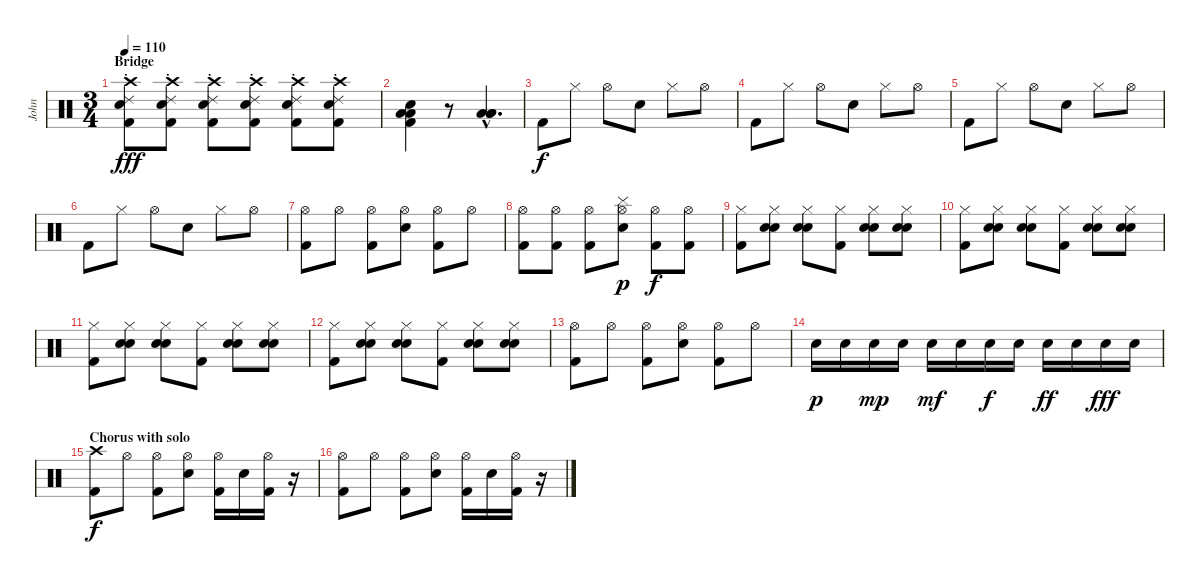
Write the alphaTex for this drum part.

\track ("John" "John") {instrument percussion}
\staff {score}
\articulation defaults
\ts (3 4)
\section ("" "Bridge")
\tempo 110
\clef neutral
\ks c
("Crash high (hit)" "Electric Snare (hit)" "Kick (hit) 2" "Ride (choke) 2").8{dy fff} ("Crash high (hit)" "Electric Snare (hit)" "Kick (hit) 2" "Ride (choke) 2").8 ("Crash high (hit)" "Electric Snare (hit)" "Kick (hit) 2" "Ride (choke) 2").8 ("Crash high (hit)" "Electric Snare (hit)" "Kick (hit) 2" "Ride (choke) 2").8 ("Crash high (hit)" "Electric Snare (hit)" "Kick (hit) 2" "Ride (choke) 2").8 ("Crash high (hit)" "Electric Snare (hit)" "Kick (hit) 2" "Ride (choke) 2").8 |
("Kick (hit) 2" "Low Floor Tom (hit)" "Low Floor Tom (hit)" "Electric Snare (hit)").4 r.8 ("Low Floor Tom (hit)"{hac} "Low Floor Tom (hit)"{hac} "Low Floor Tom (hit)"{hac}).4{d} |
"Kick (hit) 2".8{dy f} "Hi-Hat (closed)".8 "Hi-Hat (open)".8 "Electric Snare (hit)".8 "Hi-Hat (closed)".8 "Hi-Hat (open)".8 |
"Kick (hit) 2".8 "Hi-Hat (closed)".8 "Hi-Hat (open)".8 "Electric Snare (hit)".8 "Hi-Hat (closed)".8 "Hi-Hat (open)".8 |
"Kick (hit) 2".8 "Hi-Hat (closed)".8 "Hi-Hat (open)".8 "Electric Snare (hit)".8 "Hi-Hat (closed)".8 "Hi-Hat (open)".8 |
"Kick (hit) 2".8 "Hi-Hat (closed)".8 "Hi-Hat (open)".8 "Electric Snare (hit)".8 "Hi-Hat (closed)".8 "Hi-Hat (open)".8 |
("Hi-Hat (open)" "Kick (hit) 2").8 "Hi-Hat (open)".8 ("Hi-Hat (open)" "Kick (hit) 2").8 ("Hi-Hat (open)" "Electric Snare (hit)").8 ("Hi-Hat (open)" "Kick (hit) 2").8 "Hi-Hat (open)".8 |
("Hi-Hat (open)" "Kick (hit) 2").8 ("Hi-Hat (open)" "Kick (hit) 2").8 ("Hi-Hat (open)" "Kick (hit) 2").8 ("Hi-Hat (open)" "Cymbal (hit)" "Electric Snare (hit)").8{dy p} ("Hi-Hat (open)" "Kick (hit) 2").8{dy f} ("Hi-Hat (open)" "Kick (hit) 2").8 |
("Hi-Hat (closed)" "Kick (hit) 2").8 ("Hi-Hat (closed)" "Electric Snare (hit)" "Electric Snare (hit)").8 ("Hi-Hat (closed)" "Electric Snare (hit)" "Electric Snare (hit)").8 ("Hi-Hat (closed)" "Kick (hit) 2").8 ("Hi-Hat (closed)" "Electric Snare (hit)" "Electric Snare (hit)").8 ("Hi-Hat (closed)" "Electric Snare (hit)" "Electric Snare (hit)").8 |
("Hi-Hat (closed)" "Kick (hit) 2").8 ("Hi-Hat (closed)" "Electric Snare (hit)" "Electric Snare (hit)").8 ("Hi-Hat (closed)" "Electric Snare (hit)" "Electric Snare (hit)").8 ("Hi-Hat (closed)" "Kick (hit) 2").8 ("Hi-Hat (closed)" "Electric Snare (hit)" "Electric Snare (hit)").8 ("Hi-Hat (closed)" "Electric Snare (hit)" "Electric Snare (hit)").8 |
("Hi-Hat (closed)" "Kick (hit) 2").8 ("Hi-Hat (closed)" "Electric Snare (hit)" "Electric Snare (hit)").8 ("Hi-Hat (closed)" "Electric Snare (hit)" "Electric Snare (hit)").8 ("Hi-Hat (closed)" "Kick (hit) 2").8 ("Hi-Hat (closed)" "Electric Snare (hit)" "Electric Snare (hit)").8 ("Hi-Hat (closed)" "Electric Snare (hit)" "Electric Snare (hit)").8 |
("Hi-Hat (closed)" "Kick (hit) 2").8 ("Hi-Hat (closed)" "Electric Snare (hit)" "Electric Snare (hit)").8 ("Hi-Hat (closed)" "Electric Snare (hit)" "Electric Snare (hit)").8 ("Hi-Hat (closed)" "Kick (hit) 2").8 ("Hi-Hat (closed)" "Electric Snare (hit)" "Electric Snare (hit)").8 ("Hi-Hat (closed)" "Electric Snare (hit)" "Electric Snare (hit)").8 |
("Hi-Hat (open)" "Kick (hit) 2").8 "Hi-Hat (open)".8 ("Hi-Hat (open)" "Kick (hit) 2").8 ("Hi-Hat (open)" "Electric Snare (hit)").8 ("Hi-Hat (open)" "Kick (hit) 2").8 "Hi-Hat (open)".8 |
"Electric Snare (hit)".16{dy p} "Electric Snare (hit)".16 "Electric Snare (hit)".16{dy mp} "Electric Snare (hit)".16 "Electric Snare (hit)".16{dy mf} "Electric Snare (hit)".16 "Electric Snare (hit)".16{dy f} "Electric Snare (hit)".16 "Electric Snare (hit)".16{dy ff} "Electric Snare (hit)".16 "Electric Snare (hit)".16{dy fff} "Electric Snare (hit)".16 |
\section ("" "Chorus with solo")
("Crash high (hit)" "Kick (hit) 2").8{dy f} "Hi-Hat (open)".8 ("Hi-Hat (open)" "Kick (hit) 2").8 ("Hi-Hat (open)" "Electric Snare (hit)").8 ("Hi-Hat (open)" "Kick (hit) 2").16 "Electric Snare (hit)".16 ("Hi-Hat (open)" "Kick (hit) 2").16 r.16 |
("Hi-Hat (open)" "Kick (hit) 2").8 "Hi-Hat (open)".8 ("Hi-Hat (open)" "Kick (hit) 2").8 ("Hi-Hat (open)" "Electric Snare (hit)").8 ("Hi-Hat (open)" "Kick (hit) 2").16 "Electric Snare (hit)".16 ("Hi-Hat (open)" "Kick (hit) 2").16 r.16
